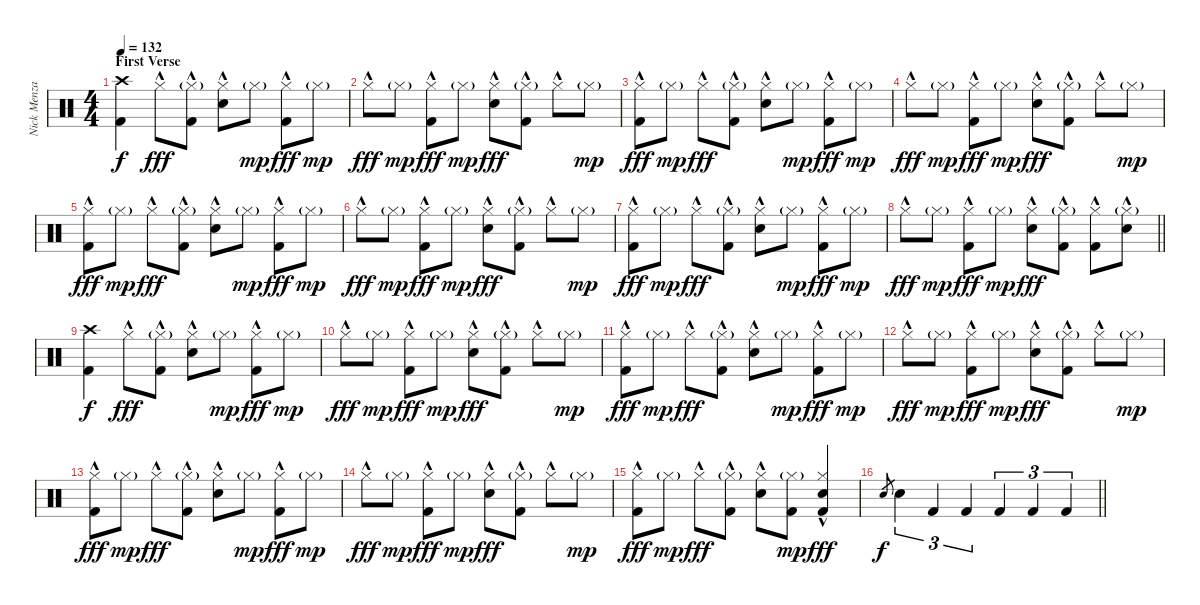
\track ("Nick Menza" "Nick Menza") {instrument percussion}
\staff {score}
\articulation defaults
\ts (4 4)
\section ("" "First Verse")
\tempo 132
\clef neutral
\ks c
("Crash high (hit)" "Kick (hit) 2").4{dy f} "Hi-Hat (closed)"{hac}.8{dy fff} ("Hi-Hat (closed)"{g} "Kick (hit) 2"{hac}).8 ("Hi-Hat (closed)"{hac} "Snare (hit) 2"{hac}).8 "Hi-Hat (closed)"{g}.8{dy mp} ("Hi-Hat (closed)"{hac} "Kick (hit) 2"{hac}).8{dy fff} "Hi-Hat (closed)"{g}.8{dy mp} |
"Hi-Hat (closed)"{hac}.8{dy fff} "Hi-Hat (closed)"{g}.8{dy mp} ("Hi-Hat (closed)"{hac} "Kick (hit) 2"{hac}).8{dy fff} "Hi-Hat (closed)"{g}.8{dy mp} ("Hi-Hat (closed)"{hac} "Snare (hit) 2"{hac}).8{dy fff} ("Hi-Hat (closed)"{g} "Kick (hit) 2"{hac}).8 "Hi-Hat (closed)"{hac}.8 "Hi-Hat (closed)"{g}.8{dy mp} |
("Hi-Hat (closed)"{hac} "Kick (hit) 2"{hac}).8{dy fff} "Hi-Hat (closed)"{g}.8{dy mp} "Hi-Hat (closed)"{hac}.8{dy fff} ("Hi-Hat (closed)"{g} "Kick (hit) 2"{hac}).8 ("Hi-Hat (closed)"{hac} "Snare (hit) 2"{hac}).8 "Hi-Hat (closed)"{g}.8{dy mp} ("Hi-Hat (closed)"{hac} "Kick (hit) 2"{hac}).8{dy fff} "Hi-Hat (closed)"{g}.8{dy mp} |
"Hi-Hat (closed)"{hac}.8{dy fff} "Hi-Hat (closed)"{g}.8{dy mp} ("Hi-Hat (closed)"{hac} "Kick (hit) 2"{hac}).8{dy fff} "Hi-Hat (closed)"{g}.8{dy mp} ("Hi-Hat (closed)"{hac} "Snare (hit) 2"{hac}).8{dy fff} ("Hi-Hat (closed)"{g} "Kick (hit) 2"{hac}).8 "Hi-Hat (closed)"{hac}.8 "Hi-Hat (closed)"{g}.8{dy mp} |
("Hi-Hat (closed)"{hac} "Kick (hit) 2"{hac}).8{dy fff} "Hi-Hat (closed)"{g}.8{dy mp} "Hi-Hat (closed)"{hac}.8{dy fff} ("Hi-Hat (closed)"{g} "Kick (hit) 2"{hac}).8 ("Hi-Hat (closed)"{hac} "Snare (hit) 2"{hac}).8 "Hi-Hat (closed)"{g}.8{dy mp} ("Hi-Hat (closed)"{hac} "Kick (hit) 2"{hac}).8{dy fff} "Hi-Hat (closed)"{g}.8{dy mp} |
"Hi-Hat (closed)"{hac}.8{dy fff} "Hi-Hat (closed)"{g}.8{dy mp} ("Hi-Hat (closed)"{hac} "Kick (hit) 2"{hac}).8{dy fff} "Hi-Hat (closed)"{g}.8{dy mp} ("Hi-Hat (closed)"{hac} "Snare (hit) 2"{hac}).8{dy fff} ("Hi-Hat (closed)"{g} "Kick (hit) 2"{hac}).8 "Hi-Hat (closed)"{hac}.8 "Hi-Hat (closed)"{g}.8{dy mp} |
("Hi-Hat (closed)"{hac} "Kick (hit) 2"{hac}).8{dy fff} "Hi-Hat (closed)"{g}.8{dy mp} "Hi-Hat (closed)"{hac}.8{dy fff} ("Hi-Hat (closed)"{g} "Kick (hit) 2"{hac}).8 ("Hi-Hat (closed)"{hac} "Snare (hit) 2"{hac}).8 "Hi-Hat (closed)"{g}.8{dy mp} ("Hi-Hat (closed)"{hac} "Kick (hit) 2"{hac}).8{dy fff} "Hi-Hat (closed)"{g}.8{dy mp} |
\barLineRight lightlight "Hi-Hat (closed)"{hac}.8{dy fff} "Hi-Hat (closed)"{g}.8{dy mp}
("Hi-Hat (closed)"{hac} "Kick (hit) 2"{hac}).8{dy fff} "Hi-Hat (closed)"{g}.8{dy mp} ("Hi-Hat (closed)"{hac} "Snare (hit) 2"{hac}).8{dy fff} ("Hi-Hat (closed)"{g} "Kick (hit) 2"{hac}).8 ("Hi-Hat (closed)"{hac} "Kick (hit) 2"{hac}).8 ("Hi-Hat (closed)"{g} "Snare (hit) 2"{hac}).8 |
("Crash high (hit)" "Kick (hit) 2").4{dy f} "Hi-Hat (closed)"{hac}.8{dy fff} ("Hi-Hat (closed)"{g} "Kick (hit) 2"{hac}).8 ("Hi-Hat (closed)"{hac} "Snare (hit) 2"{hac}).8 "Hi-Hat (closed)"{g}.8{dy mp} ("Hi-Hat (closed)"{hac} "Kick (hit) 2"{hac}).8{dy fff} "Hi-Hat (closed)"{g}.8{dy mp} |
"Hi-Hat (closed)"{hac}.8{dy fff} "Hi-Hat (closed)"{g}.8{dy mp} ("Hi-Hat (closed)"{hac} "Kick (hit) 2"{hac}).8{dy fff} "Hi-Hat (closed)"{g}.8{dy mp} ("Hi-Hat (closed)"{hac} "Snare (hit) 2"{hac}).8{dy fff} ("Hi-Hat (closed)"{g} "Kick (hit) 2"{hac}).8 "Hi-Hat (closed)"{hac}.8 "Hi-Hat (closed)"{g}.8{dy mp} |
("Hi-Hat (closed)"{hac} "Kick (hit) 2"{hac}).8{dy fff} "Hi-Hat (closed)"{g}.8{dy mp} "Hi-Hat (closed)"{hac}.8{dy fff} ("Hi-Hat (closed)"{g} "Kick (hit) 2"{hac}).8 ("Hi-Hat (closed)"{hac} "Snare (hit) 2"{hac}).8 "Hi-Hat (closed)"{g}.8{dy mp} ("Hi-Hat (closed)"{hac} "Kick (hit) 2"{hac}).8{dy fff} "Hi-Hat (closed)"{g}.8{dy mp} |
"Hi-Hat (closed)"{hac}.8{dy fff} "Hi-Hat (closed)"{g}.8{dy mp} ("Hi-Hat (closed)"{hac} "Kick (hit) 2"{hac}).8{dy fff} "Hi-Hat (closed)"{g}.8{dy mp} ("Hi-Hat (closed)"{hac} "Snare (hit) 2"{hac}).8{dy fff} ("Hi-Hat (closed)"{g} "Kick (hit) 2"{hac}).8 "Hi-Hat (closed)"{hac}.8 "Hi-Hat (closed)"{g}.8{dy mp} |
("Hi-Hat (closed)"{hac} "Kick (hit) 2"{hac}).8{dy fff} "Hi-Hat (closed)"{g}.8{dy mp} "Hi-Hat (closed)"{hac}.8{dy fff} ("Hi-Hat (closed)"{g} "Kick (hit) 2"{hac}).8 ("Hi-Hat (closed)"{hac} "Snare (hit) 2"{hac}).8 "Hi-Hat (closed)"{g}.8{dy mp} ("Hi-Hat (closed)"{hac} "Kick (hit) 2"{hac}).8{dy fff} "Hi-Hat (closed)"{g}.8{dy mp} |
"Hi-Hat (closed)"{hac}.8{dy fff} "Hi-Hat (closed)"{g}.8{dy mp} ("Hi-Hat (closed)"{hac} "Kick (hit) 2"{hac}).8{dy fff} "Hi-Hat (closed)"{g}.8{dy mp} ("Hi-Hat (closed)"{hac} "Snare (hit) 2"{hac}).8{dy fff} ("Hi-Hat (closed)"{g} "Kick (hit) 2"{hac}).8 "Hi-Hat (closed)"{hac}.8 "Hi-Hat (closed)"{g}.8{dy mp} |
("Hi-Hat (closed)"{hac} "Kick (hit) 2"{hac}).8{dy fff} "Hi-Hat (closed)"{g}.8{dy mp} "Hi-Hat (closed)"{hac}.8{dy fff} ("Hi-Hat (closed)"{g} "Kick (hit) 2"{hac}).8 ("Hi-Hat (closed)"{hac} "Snare (hit) 2"{hac}).8 ("Hi-Hat (closed)"{g} "Kick (hit) 2").8{dy mp} ("Hi-Hat (closed)"{hac} "Snare (hit) 2" "Kick (hit) 2"{hac}).4{dy fff} |
\barLineRight lightlight "Snare (hit) 2".8{gr dy f} "Snare (hit) 2".4{tu (3 2)} "Kick (hit) 2".4{tu (3 2)} "Kick (hit) 2".4{tu (3 2)} "Kick (hit) 2".4{tu (3 2)} "Kick (hit) 2".4{tu (3 2)} "Kick (hit) 2".4{tu (3 2)}
